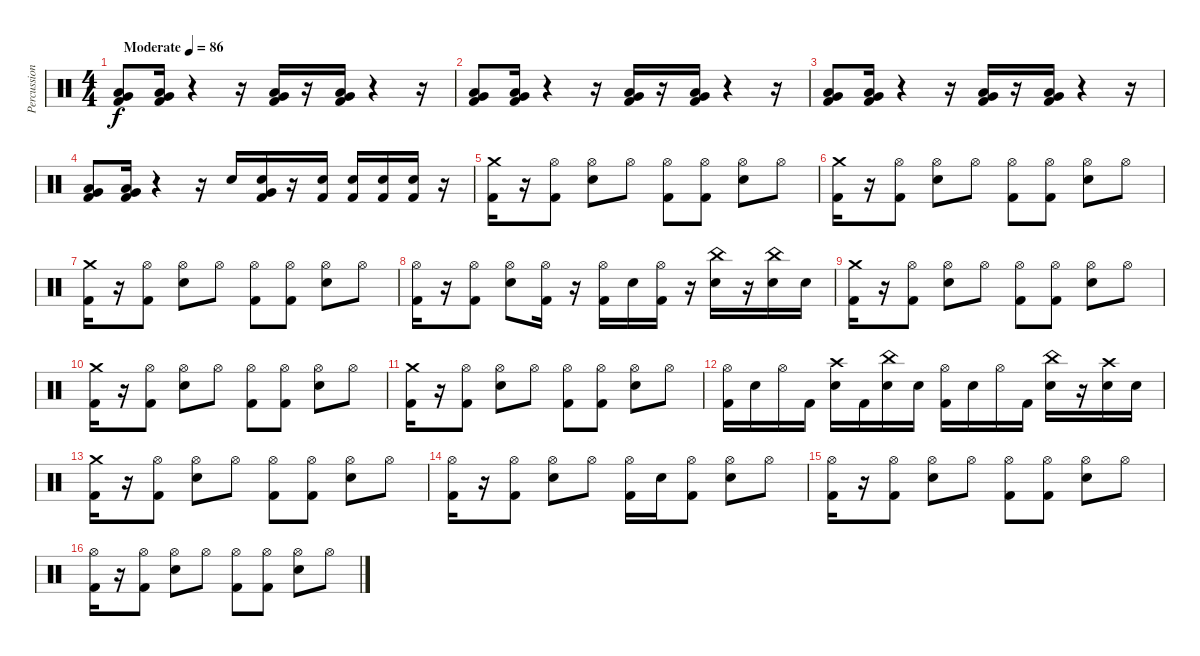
\track ("Percussions" "Percussion") {instrument percussion}
\staff {score}
\articulation defaults
\ts (4 4)
\tempo (86 "Moderate")
\clef neutral
\ks c
("Very Low Tom (hit)" "Low Tom (hit)" "Kick (hit) 2").8{dy f} ("Low Tom (hit)" "Very Low Tom (hit)" "Kick (hit) 2").16 r.4 r.16 ("Low Tom (hit)" "Very Low Tom (hit)" "Kick (hit) 2").16 r.16 ("Low Tom (hit)" "Very Low Tom (hit)" "Kick (hit) 2").16 r.4 r.16 |
("Very Low Tom (hit)" "Low Tom (hit)" "Kick (hit) 2").8 ("Low Tom (hit)" "Very Low Tom (hit)" "Kick (hit) 2").16 r.4 r.16 ("Low Tom (hit)" "Very Low Tom (hit)" "Kick (hit) 2").16 r.16 ("Low Tom (hit)" "Very Low Tom (hit)" "Kick (hit) 2").16 r.4 r.16 |
("Very Low Tom (hit)" "Low Tom (hit)" "Kick (hit) 2").8 ("Low Tom (hit)" "Very Low Tom (hit)" "Kick (hit) 2").16 r.4 r.16 ("Low Tom (hit)" "Very Low Tom (hit)" "Kick (hit) 2").16 r.16 ("Low Tom (hit)" "Very Low Tom (hit)" "Kick (hit) 2").16 r.4 r.16 |
("Very Low Tom (hit)" "Low Tom (hit)" "Kick (hit) 2").8 ("Low Tom (hit)" "Very Low Tom (hit)" "Kick (hit) 2").16 r.4 r.16 "Snare (hit) 2".16 ("Very Low Tom (hit)" "Kick (hit) 2" "Snare (hit) 2").16 r.16 ("Kick (hit) 2" "Snare (hit) 2").16 ("Kick (hit) 2" "Snare (hit) 2").16 ("Kick (hit) 2" "Snare (hit) 2").16 ("Kick (hit) 2" "Snare (hit) 2").16 r.16 |
("Kick (hit) 2" "Crash medium (hit)").16 r.16 ("Hi-Hat (open)" "Kick (hit) 2").8 ("Hi-Hat (open)" "Snare (hit) 2").8 "Hi-Hat (open)".8 ("Kick (hit) 2" "Hi-Hat (open)").8 ("Kick (hit) 2" "Hi-Hat (open)").8 ("Snare (hit) 2" "Hi-Hat (open)").8 "Hi-Hat (open)".8 |
("Kick (hit) 2" "Crash medium (hit)").16 r.16 ("Hi-Hat (open)" "Kick (hit) 2").8 ("Hi-Hat (open)" "Snare (hit) 2").8 "Hi-Hat (open)".8 ("Kick (hit) 2" "Hi-Hat (open)").8 ("Kick (hit) 2" "Hi-Hat (open)").8 ("Snare (hit) 2" "Hi-Hat (open)").8 "Hi-Hat (open)".8 |
("Kick (hit) 2" "Crash medium (hit)").16 r.16 ("Hi-Hat (open)" "Kick (hit) 2").8 ("Hi-Hat (open)" "Snare (hit) 2").8 "Hi-Hat (open)".8 ("Kick (hit) 2" "Hi-Hat (open)").8 ("Kick (hit) 2" "Hi-Hat (open)").8 ("Snare (hit) 2" "Hi-Hat (open)").8 "Hi-Hat (open)".8 |
("Kick (hit) 2" "Hi-Hat (open)").16 r.16 ("Kick (hit) 2" "Hi-Hat (open)").8 ("Electric Snare (hit)" "Hi-Hat (open)").8 ("Kick (hit) 2" "Hi-Hat (open)").16 r.16 ("Hi-Hat (open)" "Kick (hit) 2").16 "Snare (hit) 2".16 ("Hi-Hat (open)" "Kick (hit) 2").16 r.16 ("China (hit)" "Snare (hit) 2").16 r.16 ("China (hit)" "Snare (hit) 2").16 "Snare (hit) 2".16 |
("Kick (hit) 2" "Crash medium (hit)").16 r.16 ("Hi-Hat (open)" "Kick (hit) 2").8 ("Hi-Hat (open)" "Snare (hit) 2").8 "Hi-Hat (open)".8 ("Kick (hit) 2" "Hi-Hat (open)").8 ("Kick (hit) 2" "Hi-Hat (open)").8 ("Snare (hit) 2" "Hi-Hat (open)").8 "Hi-Hat (open)".8 |
("Kick (hit) 2" "Crash medium (hit)").16 r.16 ("Hi-Hat (open)" "Kick (hit) 2").8 ("Hi-Hat (open)" "Snare (hit) 2").8 "Hi-Hat (open)".8 ("Kick (hit) 2" "Hi-Hat (open)").8 ("Kick (hit) 2" "Hi-Hat (open)").8 ("Snare (hit) 2" "Hi-Hat (open)").8 "Hi-Hat (open)".8 |
("Kick (hit) 2" "Crash medium (hit)").16 r.16 ("Hi-Hat (open)" "Kick (hit) 2").8 ("Hi-Hat (open)" "Snare (hit) 2").8 "Hi-Hat (open)".8 ("Kick (hit) 2" "Hi-Hat (open)").8 ("Kick (hit) 2" "Hi-Hat (open)").8 ("Snare (hit) 2" "Hi-Hat (open)").8 "Hi-Hat (open)".8 |
("Kick (hit) 2" "Hi-Hat (open)").16 "Snare (hit) 2".16 "Hi-Hat (open)".16 "Kick (hit) 2".16 ("Crash high (hit)" "Snare (hit) 2").16 "Kick (hit) 2".16 ("Snare (hit) 2" "China (hit)").16 "Snare (hit) 2".16 ("Kick (hit) 2" "Hi-Hat (open)").16 "Snare (hit) 2".16 "Hi-Hat (open)".16 "Kick (hit) 2".16 ("Snare (hit) 2" "China (hit)").16 r.16 ("Crash high (hit)" "Snare (hit) 2").16 "Snare (hit) 2".16 |
("Kick (hit) 2" "Crash medium (hit)").16 r.16 ("Kick (hit) 2" "Hi-Hat (open)").8 ("Hi-Hat (open)" "Snare (hit) 2").8 "Hi-Hat (open)".8 ("Hi-Hat (open)" "Kick (hit) 2").8 ("Kick (hit) 2" "Hi-Hat (open)").8 ("Hi-Hat (open)" "Snare (hit) 2").8 "Hi-Hat (open)".8 |
("Kick (hit) 2" "Hi-Hat (open)").16 r.16 ("Kick (hit) 2" "Hi-Hat (open)").8 ("Snare (hit) 2" "Hi-Hat (open)").8 "Hi-Hat (open)".8 ("Kick (hit) 2" "Hi-Hat (open)").16 "Snare (hit) 2".16 ("Kick (hit) 2" "Hi-Hat (open)").8 ("Snare (hit) 2" "Hi-Hat (open)").8 "Hi-Hat (open)".8 |
("Kick (hit) 2" "Hi-Hat (open)").16 r.16 ("Kick (hit) 2" "Hi-Hat (open)").8 ("Snare (hit) 2" "Hi-Hat (open)").8 "Hi-Hat (open)".8 ("Kick (hit) 2" "Hi-Hat (open)").8 ("Kick (hit) 2" "Hi-Hat (open)").8 ("Snare (hit) 2" "Hi-Hat (open)").8 "Hi-Hat (open)".8 |
("Kick (hit) 2" "Hi-Hat (open)").16 r.16 ("Kick (hit) 2" "Hi-Hat (open)").8 ("Snare (hit) 2" "Hi-Hat (open)").8 "Hi-Hat (open)".8 ("Kick (hit) 2" "Hi-Hat (open)").8 ("Kick (hit) 2" "Hi-Hat (open)").8 ("Snare (hit) 2" "Hi-Hat (open)").8 "Hi-Hat (open)".8
